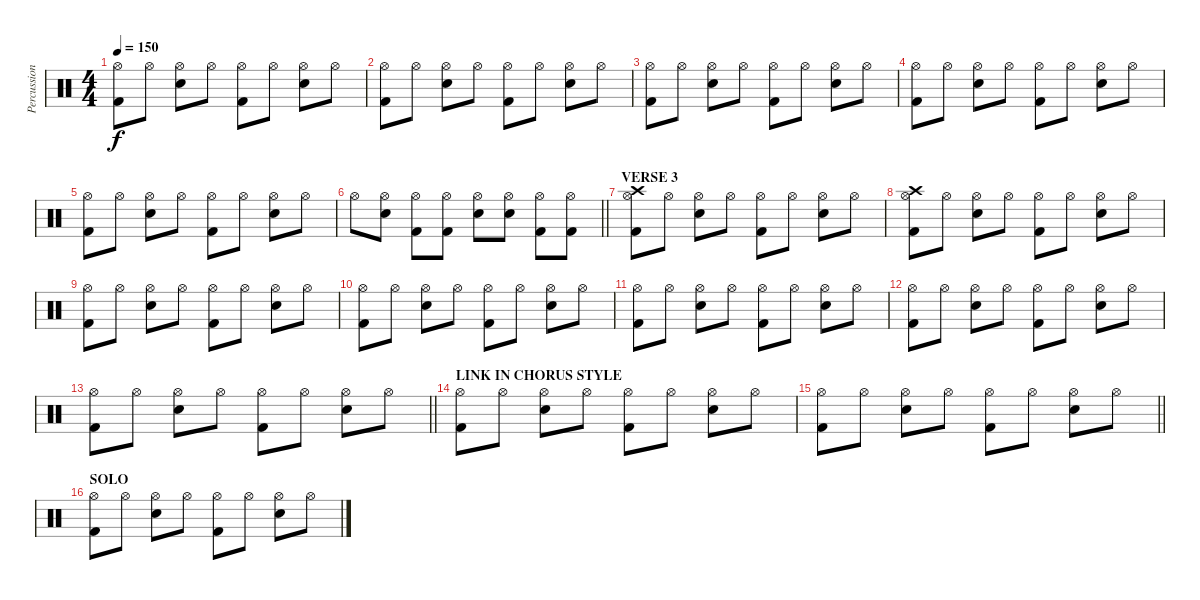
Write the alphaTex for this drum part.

\track ("Percussion" "Percussion") {solo instrument percussion}
\staff {score}
\articulation defaults
\ts (4 4)
\tempo 150
\clef neutral
\ks c
("Hi-Hat (open)" "Kick (hit) 2").8{dy f} "Hi-Hat (open)".8 ("Hi-Hat (open)" "Snare (hit) 2").8 "Hi-Hat (open)".8 ("Hi-Hat (open)" "Kick (hit) 2").8 "Hi-Hat (open)".8 ("Hi-Hat (open)" "Snare (hit) 2").8 "Hi-Hat (open)".8 |
("Hi-Hat (open)" "Kick (hit) 2").8 "Hi-Hat (open)".8 ("Hi-Hat (open)" "Snare (hit) 2").8 "Hi-Hat (open)".8 ("Hi-Hat (open)" "Kick (hit) 2").8 "Hi-Hat (open)".8 ("Hi-Hat (open)" "Snare (hit) 2").8 "Hi-Hat (open)".8 |
("Hi-Hat (open)" "Kick (hit) 2").8 "Hi-Hat (open)".8 ("Hi-Hat (open)" "Snare (hit) 2").8 "Hi-Hat (open)".8 ("Hi-Hat (open)" "Kick (hit) 2").8 "Hi-Hat (open)".8 ("Hi-Hat (open)" "Snare (hit) 2").8 "Hi-Hat (open)".8 |
("Hi-Hat (open)" "Kick (hit) 2").8 "Hi-Hat (open)".8 ("Hi-Hat (open)" "Snare (hit) 2").8 "Hi-Hat (open)".8 ("Hi-Hat (open)" "Kick (hit) 2").8 "Hi-Hat (open)".8 ("Hi-Hat (open)" "Snare (hit) 2").8 "Hi-Hat (open)".8 |
("Hi-Hat (open)" "Kick (hit) 2").8 "Hi-Hat (open)".8 ("Hi-Hat (open)" "Snare (hit) 2").8 "Hi-Hat (open)".8 ("Hi-Hat (open)" "Kick (hit) 2").8 "Hi-Hat (open)".8 ("Hi-Hat (open)" "Snare (hit) 2").8 "Hi-Hat (open)".8 |
\barLineRight lightlight "Hi-Hat (open)".8
("Hi-Hat (open)" "Snare (hit) 2").8 ("Hi-Hat (open)" "Kick (hit) 2").8 ("Hi-Hat (open)" "Kick (hit) 2").8 ("Hi-Hat (open)" "Snare (hit) 2").8 ("Hi-Hat (open)" "Snare (hit) 2").8 ("Hi-Hat (open)" "Kick (hit) 2").8 ("Hi-Hat (open)" "Kick (hit) 2").8 |
\section ("" "VERSE 3")
("Hi-Hat (open)" "Crash high (hit)" "Kick (hit) 2").8 "Hi-Hat (open)".8 ("Hi-Hat (open)" "Snare (hit) 2").8 "Hi-Hat (open)".8 ("Hi-Hat (open)" "Kick (hit) 2").8 "Hi-Hat (open)".8 ("Hi-Hat (open)" "Snare (hit) 2").8 "Hi-Hat (open)".8 |
("Hi-Hat (open)" "Crash high (hit)" "Kick (hit) 2").8 "Hi-Hat (open)".8 ("Hi-Hat (open)" "Snare (hit) 2").8 "Hi-Hat (open)".8 ("Hi-Hat (open)" "Kick (hit) 2").8 "Hi-Hat (open)".8 ("Hi-Hat (open)" "Snare (hit) 2").8 "Hi-Hat (open)".8 |
("Hi-Hat (open)" "Kick (hit) 2").8 "Hi-Hat (open)".8 ("Hi-Hat (open)" "Snare (hit) 2").8 "Hi-Hat (open)".8 ("Hi-Hat (open)" "Kick (hit) 2").8 "Hi-Hat (open)".8 ("Hi-Hat (open)" "Snare (hit) 2").8 "Hi-Hat (open)".8 |
("Hi-Hat (open)" "Kick (hit) 2").8 "Hi-Hat (open)".8 ("Hi-Hat (open)" "Snare (hit) 2").8 "Hi-Hat (open)".8 ("Hi-Hat (open)" "Kick (hit) 2").8 "Hi-Hat (open)".8 ("Hi-Hat (open)" "Snare (hit) 2").8 "Hi-Hat (open)".8 |
("Hi-Hat (open)" "Kick (hit) 2").8 "Hi-Hat (open)".8 ("Hi-Hat (open)" "Snare (hit) 2").8 "Hi-Hat (open)".8 ("Hi-Hat (open)" "Kick (hit) 2").8 "Hi-Hat (open)".8 ("Hi-Hat (open)" "Snare (hit) 2").8 "Hi-Hat (open)".8 |
("Hi-Hat (open)" "Kick (hit) 2").8 "Hi-Hat (open)".8 ("Hi-Hat (open)" "Snare (hit) 2").8 "Hi-Hat (open)".8 ("Hi-Hat (open)" "Kick (hit) 2").8 "Hi-Hat (open)".8 ("Hi-Hat (open)" "Snare (hit) 2").8 "Hi-Hat (open)".8 |
\barLineRight lightlight
("Hi-Hat (open)" "Kick (hit) 2").8 "Hi-Hat (open)".8 ("Hi-Hat (open)" "Snare (hit) 2").8 "Hi-Hat (open)".8 ("Hi-Hat (open)" "Kick (hit) 2").8 "Hi-Hat (open)".8 ("Hi-Hat (open)" "Snare (hit) 2").8 "Hi-Hat (open)".8 |
\section ("" "LINK IN CHORUS STYLE")
("Hi-Hat (open)" "Kick (hit) 2").8 "Hi-Hat (open)".8 ("Hi-Hat (open)" "Snare (hit) 2").8 "Hi-Hat (open)".8 ("Hi-Hat (open)" "Kick (hit) 2").8 "Hi-Hat (open)".8 ("Hi-Hat (open)" "Snare (hit) 2").8 "Hi-Hat (open)".8 |
\barLineRight lightlight
("Hi-Hat (open)" "Kick (hit) 2").8 "Hi-Hat (open)".8 ("Hi-Hat (open)" "Snare (hit) 2").8 "Hi-Hat (open)".8 ("Hi-Hat (open)" "Kick (hit) 2").8 "Hi-Hat (open)".8 ("Hi-Hat (open)" "Snare (hit) 2").8 "Hi-Hat (open)".8 |
\section ("" "SOLO")
("Hi-Hat (open)" "Kick (hit) 2").8 "Hi-Hat (open)".8 ("Hi-Hat (open)" "Snare (hit) 2").8 "Hi-Hat (open)".8 ("Hi-Hat (open)" "Kick (hit) 2").8 "Hi-Hat (open)".8 ("Hi-Hat (open)" "Snare (hit) 2").8 "Hi-Hat (open)".8
